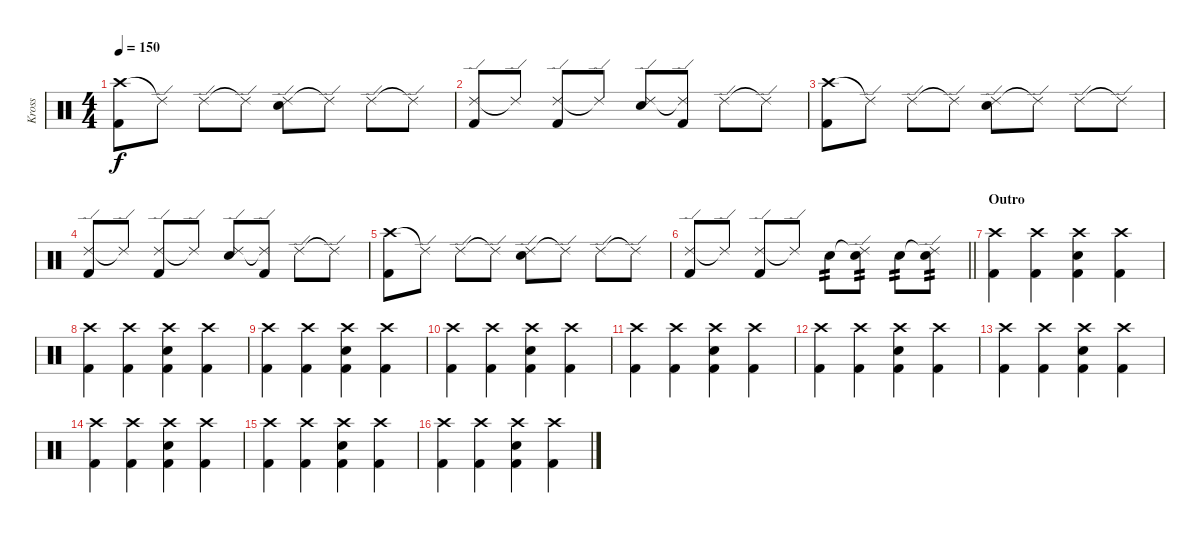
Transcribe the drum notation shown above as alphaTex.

\track ("Kross" "Kross") {instrument percussion}
\staff {score}
\articulation defaults
\ts (4 4)
\tempo 150
\clef neutral
\ks c
("Crash high (hit)" "Kick (hit) 2").8{dy f} "Ride (edge) 2"{t}.8 "Ride (edge) 2".8 "Ride (edge) 2"{t}.8 ("Ride (edge) 2" "Electric Snare (hit)").8 "Ride (edge) 2"{t}.8 "Ride (edge) 2".8 "Ride (edge) 2"{t}.8 |
("Ride (edge) 2" "Kick (hit) 2").8 "Ride (edge) 2"{t}.8 ("Ride (edge) 2" "Kick (hit) 2").8 "Ride (edge) 2"{t}.8 ("Ride (edge) 2" "Electric Snare (hit)").8 ("Ride (edge) 2"{t} "Kick (hit) 2").8 "Ride (edge) 2".8 "Ride (edge) 2"{t}.8 |
("Crash high (hit)" "Kick (hit) 2").8 "Ride (edge) 2"{t}.8 "Ride (edge) 2".8 "Ride (edge) 2"{t}.8 ("Ride (edge) 2" "Electric Snare (hit)").8 "Ride (edge) 2"{t}.8 "Ride (edge) 2".8 "Ride (edge) 2"{t}.8 |
("Ride (edge) 2" "Kick (hit) 2").8 "Ride (edge) 2"{t}.8 ("Ride (edge) 2" "Kick (hit) 2").8 "Ride (edge) 2"{t}.8 ("Ride (edge) 2" "Electric Snare (hit)").8 ("Ride (edge) 2"{t} "Kick (hit) 2").8 "Ride (edge) 2".8 "Ride (edge) 2"{t}.8 |
("Crash high (hit)" "Kick (hit) 2").8 "Ride (edge) 2"{t}.8 "Ride (edge) 2".8 "Ride (edge) 2"{t}.8 ("Ride (edge) 2" "Electric Snare (hit)").8 "Ride (edge) 2"{t}.8 "Ride (edge) 2".8 "Ride (edge) 2"{t}.8 |
\barLineRight lightlight
("Ride (edge) 2" "Kick (hit) 2").8 "Ride (edge) 2"{t}.8 ("Ride (edge) 2" "Kick (hit) 2").8 "Ride (edge) 2"{t}.8 "Electric Snare (hit)".8{tp 2} ("Ride (edge) 2"{t} "Electric Snare (hit)").8{tp 2} "Electric Snare (hit)".8{tp 2} ("Ride (edge) 2"{t} "Electric Snare (hit)").8{tp 2} |
\section ("" "Outro")
("Kick (hit) 2" "Crash high (hit)").4 ("Kick (hit) 2" "Crash high (hit)").4 ("Crash high (hit)" "Kick (hit) 2" "Electric Snare (hit)").4 ("Kick (hit) 2" "Crash high (hit)").4 |
("Kick (hit) 2" "Crash high (hit)").4 ("Kick (hit) 2" "Crash high (hit)").4 ("Crash high (hit)" "Kick (hit) 2" "Electric Snare (hit)").4 ("Kick (hit) 2" "Crash high (hit)").4 |
("Kick (hit) 2" "Crash high (hit)").4 ("Kick (hit) 2" "Crash high (hit)").4 ("Crash high (hit)" "Kick (hit) 2" "Electric Snare (hit)").4 ("Kick (hit) 2" "Crash high (hit)").4 |
("Kick (hit) 2" "Crash high (hit)").4 ("Kick (hit) 2" "Crash high (hit)").4 ("Crash high (hit)" "Kick (hit) 2" "Electric Snare (hit)").4 ("Kick (hit) 2" "Crash high (hit)").4 |
("Kick (hit) 2" "Crash high (hit)").4 ("Kick (hit) 2" "Crash high (hit)").4 ("Crash high (hit)" "Kick (hit) 2" "Electric Snare (hit)").4 ("Kick (hit) 2" "Crash high (hit)").4 |
("Kick (hit) 2" "Crash high (hit)").4 ("Kick (hit) 2" "Crash high (hit)").4 ("Crash high (hit)" "Kick (hit) 2" "Electric Snare (hit)").4 ("Kick (hit) 2" "Crash high (hit)").4 |
("Kick (hit) 2" "Crash high (hit)").4 ("Kick (hit) 2" "Crash high (hit)").4 ("Crash high (hit)" "Kick (hit) 2" "Electric Snare (hit)").4 ("Kick (hit) 2" "Crash high (hit)").4 |
("Kick (hit) 2" "Crash high (hit)").4 ("Kick (hit) 2" "Crash high (hit)").4 ("Crash high (hit)" "Kick (hit) 2" "Electric Snare (hit)").4 ("Kick (hit) 2" "Crash high (hit)").4 |
("Kick (hit) 2" "Crash high (hit)").4 ("Kick (hit) 2" "Crash high (hit)").4 ("Crash high (hit)" "Kick (hit) 2" "Electric Snare (hit)").4 ("Kick (hit) 2" "Crash high (hit)").4 |
("Kick (hit) 2" "Crash high (hit)").4 ("Kick (hit) 2" "Crash high (hit)").4 ("Crash high (hit)" "Kick (hit) 2" "Electric Snare (hit)").4 ("Kick (hit) 2" "Crash high (hit)").4
